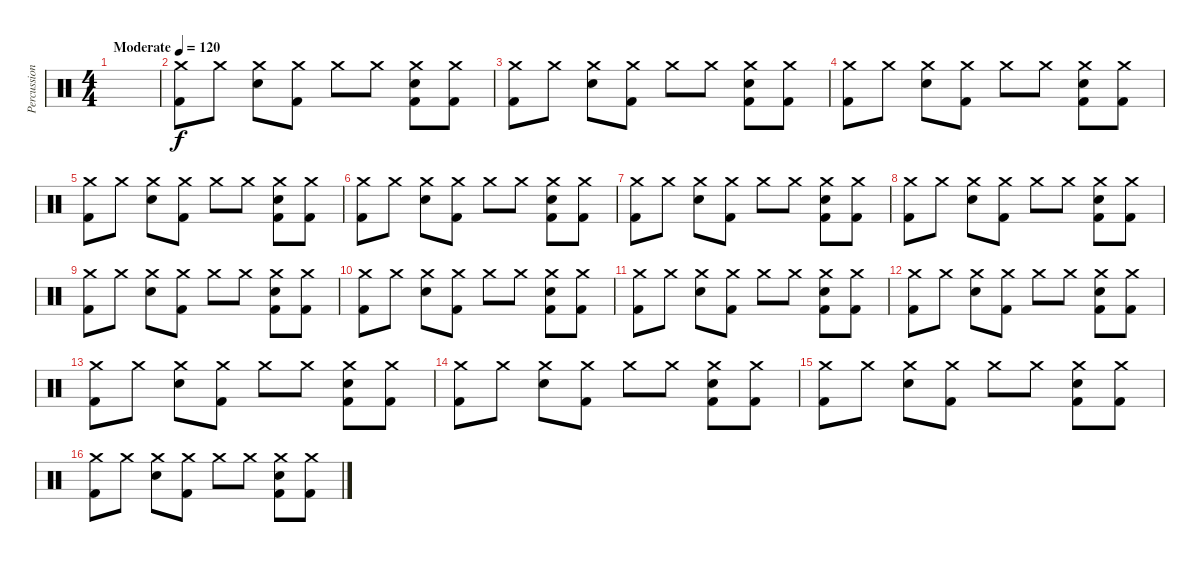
\track ("Percussion" "Percussion") {instrument percussion}
\staff {score}
\articulation defaults
\ts (4 4)
\tempo (120 "Moderate")
\clef neutral
\ks c
|
("Crash medium (hit)" "Kick (hit) 2").8 "Crash medium (hit)".8 ("Crash medium (hit)" "Electric Snare (hit)").8 ("Crash medium (hit)" "Kick (hit) 2").8 "Crash medium (hit)".8 "Crash medium (hit)".8 ("Crash medium (hit)" "Electric Snare (hit)" "Kick (hit) 2").8 ("Crash medium (hit)" "Kick (hit) 2").8 |
("Crash medium (hit)" "Kick (hit) 2").8 "Crash medium (hit)".8 ("Crash medium (hit)" "Electric Snare (hit)").8 ("Crash medium (hit)" "Kick (hit) 2").8 "Crash medium (hit)".8 "Crash medium (hit)".8 ("Crash medium (hit)" "Electric Snare (hit)" "Kick (hit) 2").8 ("Crash medium (hit)" "Kick (hit) 2").8 |
("Crash medium (hit)" "Kick (hit) 2").8 "Crash medium (hit)".8 ("Crash medium (hit)" "Electric Snare (hit)").8 ("Crash medium (hit)" "Kick (hit) 2").8 "Crash medium (hit)".8 "Crash medium (hit)".8 ("Crash medium (hit)" "Electric Snare (hit)" "Kick (hit) 2").8 ("Crash medium (hit)" "Kick (hit) 2").8 |
("Crash medium (hit)" "Kick (hit) 2").8 "Crash medium (hit)".8 ("Crash medium (hit)" "Electric Snare (hit)").8 ("Crash medium (hit)" "Kick (hit) 2").8 "Crash medium (hit)".8 "Crash medium (hit)".8 ("Crash medium (hit)" "Electric Snare (hit)" "Kick (hit) 2").8 ("Crash medium (hit)" "Kick (hit) 2").8 |
("Crash medium (hit)" "Kick (hit) 2").8 "Crash medium (hit)".8 ("Crash medium (hit)" "Electric Snare (hit)").8 ("Crash medium (hit)" "Kick (hit) 2").8 "Crash medium (hit)".8 "Crash medium (hit)".8 ("Crash medium (hit)" "Electric Snare (hit)" "Kick (hit) 2").8 ("Crash medium (hit)" "Kick (hit) 2").8 |
("Crash medium (hit)" "Kick (hit) 2").8 "Crash medium (hit)".8 ("Crash medium (hit)" "Electric Snare (hit)").8 ("Crash medium (hit)" "Kick (hit) 2").8 "Crash medium (hit)".8 "Crash medium (hit)".8 ("Crash medium (hit)" "Electric Snare (hit)" "Kick (hit) 2").8 ("Crash medium (hit)" "Kick (hit) 2").8 |
("Crash medium (hit)" "Kick (hit) 2").8 "Crash medium (hit)".8 ("Crash medium (hit)" "Electric Snare (hit)").8 ("Crash medium (hit)" "Kick (hit) 2").8 "Crash medium (hit)".8 "Crash medium (hit)".8 ("Crash medium (hit)" "Electric Snare (hit)" "Kick (hit) 2").8 ("Crash medium (hit)" "Kick (hit) 2").8 |
("Crash medium (hit)" "Kick (hit) 2").8 "Crash medium (hit)".8 ("Crash medium (hit)" "Electric Snare (hit)").8 ("Crash medium (hit)" "Kick (hit) 2").8 "Crash medium (hit)".8 "Crash medium (hit)".8 ("Crash medium (hit)" "Electric Snare (hit)" "Kick (hit) 2").8 ("Crash medium (hit)" "Kick (hit) 2").8 |
("Crash medium (hit)" "Kick (hit) 2").8 "Crash medium (hit)".8 ("Crash medium (hit)" "Electric Snare (hit)").8 ("Crash medium (hit)" "Kick (hit) 2").8 "Crash medium (hit)".8 "Crash medium (hit)".8 ("Crash medium (hit)" "Electric Snare (hit)" "Kick (hit) 2").8 ("Crash medium (hit)" "Kick (hit) 2").8 |
("Crash medium (hit)" "Kick (hit) 2").8 "Crash medium (hit)".8 ("Crash medium (hit)" "Electric Snare (hit)").8 ("Crash medium (hit)" "Kick (hit) 2").8 "Crash medium (hit)".8 "Crash medium (hit)".8 ("Crash medium (hit)" "Electric Snare (hit)" "Kick (hit) 2").8 ("Crash medium (hit)" "Kick (hit) 2").8 |
("Crash medium (hit)" "Kick (hit) 2").8 "Crash medium (hit)".8 ("Crash medium (hit)" "Electric Snare (hit)").8 ("Crash medium (hit)" "Kick (hit) 2").8 "Crash medium (hit)".8 "Crash medium (hit)".8 ("Crash medium (hit)" "Electric Snare (hit)" "Kick (hit) 2").8 ("Crash medium (hit)" "Kick (hit) 2").8 |
("Crash medium (hit)" "Kick (hit) 2").8 "Crash medium (hit)".8 ("Crash medium (hit)" "Electric Snare (hit)").8 ("Crash medium (hit)" "Kick (hit) 2").8 "Crash medium (hit)".8 "Crash medium (hit)".8 ("Crash medium (hit)" "Electric Snare (hit)" "Kick (hit) 2").8 ("Crash medium (hit)" "Kick (hit) 2").8 |
("Crash medium (hit)" "Kick (hit) 2").8 "Crash medium (hit)".8 ("Crash medium (hit)" "Electric Snare (hit)").8 ("Crash medium (hit)" "Kick (hit) 2").8 "Crash medium (hit)".8 "Crash medium (hit)".8 ("Crash medium (hit)" "Electric Snare (hit)" "Kick (hit) 2").8 ("Crash medium (hit)" "Kick (hit) 2").8 |
("Crash medium (hit)" "Kick (hit) 2").8 "Crash medium (hit)".8 ("Crash medium (hit)" "Electric Snare (hit)").8 ("Crash medium (hit)" "Kick (hit) 2").8 "Crash medium (hit)".8 "Crash medium (hit)".8 ("Crash medium (hit)" "Electric Snare (hit)" "Kick (hit) 2").8 ("Crash medium (hit)" "Kick (hit) 2").8 |
("Crash medium (hit)" "Kick (hit) 2").8 "Crash medium (hit)".8 ("Crash medium (hit)" "Electric Snare (hit)").8 ("Crash medium (hit)" "Kick (hit) 2").8 "Crash medium (hit)".8 "Crash medium (hit)".8 ("Crash medium (hit)" "Electric Snare (hit)" "Kick (hit) 2").8 ("Crash medium (hit)" "Kick (hit) 2").8
